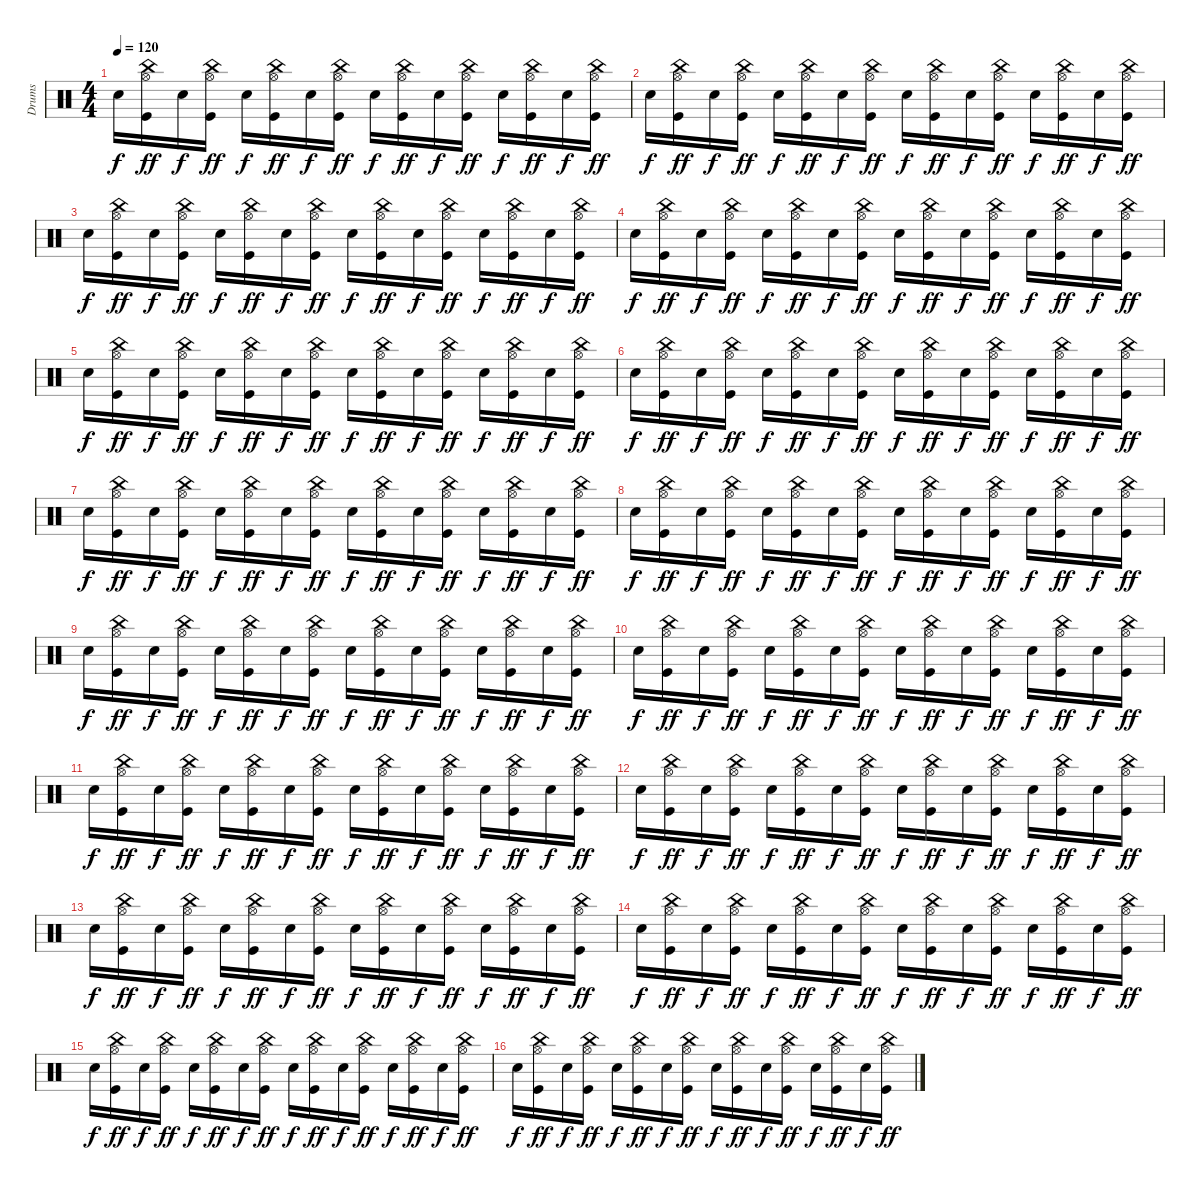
\track ("Drums" "Drums") {instrument percussion}
\staff {score}
\articulation defaults
\ts (4 4)
\tempo 120
\clef neutral
\ks c "Electric Snare (hit)".16{dy f}
("China (hit)" "Hi-Hat (open)" "Kick (hit)").16{dy ff} "Electric Snare (hit)".16{dy f} ("China (hit)" "Hi-Hat (open)" "Kick (hit)").16{dy ff} "Electric Snare (hit)".16{dy f} ("China (hit)" "Hi-Hat (open)" "Kick (hit)").16{dy ff} "Electric Snare (hit)".16{dy f} ("China (hit)" "Hi-Hat (open)" "Kick (hit)").16{dy ff} "Electric Snare (hit)".16{dy f} ("China (hit)" "Hi-Hat (open)" "Kick (hit)").16{dy ff} "Electric Snare (hit)".16{dy f} ("China (hit)" "Hi-Hat (open)" "Kick (hit)").16{dy ff} "Electric Snare (hit)".16{dy f} ("China (hit)" "Hi-Hat (open)" "Kick (hit)").16{dy ff} "Electric Snare (hit)".16{dy f} ("China (hit)" "Hi-Hat (open)" "Kick (hit)").16{dy ff} |
"Electric Snare (hit)".16{dy f} ("China (hit)" "Hi-Hat (open)" "Kick (hit)").16{dy ff} "Electric Snare (hit)".16{dy f} ("China (hit)" "Hi-Hat (open)" "Kick (hit)").16{dy ff} "Electric Snare (hit)".16{dy f} ("China (hit)" "Hi-Hat (open)" "Kick (hit)").16{dy ff} "Electric Snare (hit)".16{dy f} ("China (hit)" "Hi-Hat (open)" "Kick (hit)").16{dy ff} "Electric Snare (hit)".16{dy f} ("China (hit)" "Hi-Hat (open)" "Kick (hit)").16{dy ff} "Electric Snare (hit)".16{dy f} ("China (hit)" "Hi-Hat (open)" "Kick (hit)").16{dy ff} "Electric Snare (hit)".16{dy f} ("China (hit)" "Hi-Hat (open)" "Kick (hit)").16{dy ff} "Electric Snare (hit)".16{dy f} ("China (hit)" "Hi-Hat (open)" "Kick (hit)").16{dy ff} |
"Electric Snare (hit)".16{dy f} ("China (hit)" "Hi-Hat (open)" "Kick (hit)").16{dy ff} "Electric Snare (hit)".16{dy f} ("China (hit)" "Hi-Hat (open)" "Kick (hit)").16{dy ff} "Electric Snare (hit)".16{dy f} ("China (hit)" "Hi-Hat (open)" "Kick (hit)").16{dy ff} "Electric Snare (hit)".16{dy f} ("China (hit)" "Hi-Hat (open)" "Kick (hit)").16{dy ff} "Electric Snare (hit)".16{dy f} ("China (hit)" "Hi-Hat (open)" "Kick (hit)").16{dy ff} "Electric Snare (hit)".16{dy f} ("China (hit)" "Hi-Hat (open)" "Kick (hit)").16{dy ff} "Electric Snare (hit)".16{dy f} ("China (hit)" "Hi-Hat (open)" "Kick (hit)").16{dy ff} "Electric Snare (hit)".16{dy f} ("China (hit)" "Hi-Hat (open)" "Kick (hit)").16{dy ff} |
"Electric Snare (hit)".16{dy f} ("China (hit)" "Hi-Hat (open)" "Kick (hit)").16{dy ff} "Electric Snare (hit)".16{dy f} ("China (hit)" "Hi-Hat (open)" "Kick (hit)").16{dy ff} "Electric Snare (hit)".16{dy f} ("China (hit)" "Hi-Hat (open)" "Kick (hit)").16{dy ff} "Electric Snare (hit)".16{dy f} ("China (hit)" "Hi-Hat (open)" "Kick (hit)").16{dy ff} "Electric Snare (hit)".16{dy f} ("China (hit)" "Hi-Hat (open)" "Kick (hit)").16{dy ff} "Electric Snare (hit)".16{dy f} ("China (hit)" "Hi-Hat (open)" "Kick (hit)").16{dy ff} "Electric Snare (hit)".16{dy f} ("China (hit)" "Hi-Hat (open)" "Kick (hit)").16{dy ff} "Electric Snare (hit)".16{dy f} ("China (hit)" "Hi-Hat (open)" "Kick (hit)").16{dy ff} |
"Electric Snare (hit)".16{dy f} ("China (hit)" "Hi-Hat (open)" "Kick (hit)").16{dy ff} "Electric Snare (hit)".16{dy f} ("China (hit)" "Hi-Hat (open)" "Kick (hit)").16{dy ff} "Electric Snare (hit)".16{dy f} ("China (hit)" "Hi-Hat (open)" "Kick (hit)").16{dy ff} "Electric Snare (hit)".16{dy f} ("China (hit)" "Hi-Hat (open)" "Kick (hit)").16{dy ff} "Electric Snare (hit)".16{dy f} ("China (hit)" "Hi-Hat (open)" "Kick (hit)").16{dy ff} "Electric Snare (hit)".16{dy f} ("China (hit)" "Hi-Hat (open)" "Kick (hit)").16{dy ff} "Electric Snare (hit)".16{dy f} ("China (hit)" "Hi-Hat (open)" "Kick (hit)").16{dy ff} "Electric Snare (hit)".16{dy f} ("China (hit)" "Hi-Hat (open)" "Kick (hit)").16{dy ff} |
"Electric Snare (hit)".16{dy f} ("China (hit)" "Hi-Hat (open)" "Kick (hit)").16{dy ff} "Electric Snare (hit)".16{dy f} ("China (hit)" "Hi-Hat (open)" "Kick (hit)").16{dy ff} "Electric Snare (hit)".16{dy f} ("China (hit)" "Hi-Hat (open)" "Kick (hit)").16{dy ff} "Electric Snare (hit)".16{dy f} ("China (hit)" "Hi-Hat (open)" "Kick (hit)").16{dy ff} "Electric Snare (hit)".16{dy f} ("China (hit)" "Hi-Hat (open)" "Kick (hit)").16{dy ff} "Electric Snare (hit)".16{dy f} ("China (hit)" "Hi-Hat (open)" "Kick (hit)").16{dy ff} "Electric Snare (hit)".16{dy f} ("China (hit)" "Hi-Hat (open)" "Kick (hit)").16{dy ff} "Electric Snare (hit)".16{dy f} ("China (hit)" "Hi-Hat (open)" "Kick (hit)").16{dy ff} |
"Electric Snare (hit)".16{dy f} ("China (hit)" "Hi-Hat (open)" "Kick (hit)").16{dy ff} "Electric Snare (hit)".16{dy f} ("China (hit)" "Hi-Hat (open)" "Kick (hit)").16{dy ff} "Electric Snare (hit)".16{dy f} ("China (hit)" "Hi-Hat (open)" "Kick (hit)").16{dy ff} "Electric Snare (hit)".16{dy f} ("China (hit)" "Hi-Hat (open)" "Kick (hit)").16{dy ff} "Electric Snare (hit)".16{dy f} ("China (hit)" "Hi-Hat (open)" "Kick (hit)").16{dy ff} "Electric Snare (hit)".16{dy f} ("China (hit)" "Hi-Hat (open)" "Kick (hit)").16{dy ff} "Electric Snare (hit)".16{dy f} ("China (hit)" "Hi-Hat (open)" "Kick (hit)").16{dy ff} "Electric Snare (hit)".16{dy f} ("China (hit)" "Hi-Hat (open)" "Kick (hit)").16{dy ff} |
"Electric Snare (hit)".16{dy f} ("China (hit)" "Hi-Hat (open)" "Kick (hit)").16{dy ff} "Electric Snare (hit)".16{dy f} ("China (hit)" "Hi-Hat (open)" "Kick (hit)").16{dy ff} "Electric Snare (hit)".16{dy f} ("China (hit)" "Hi-Hat (open)" "Kick (hit)").16{dy ff} "Electric Snare (hit)".16{dy f} ("China (hit)" "Hi-Hat (open)" "Kick (hit)").16{dy ff} "Electric Snare (hit)".16{dy f} ("China (hit)" "Hi-Hat (open)" "Kick (hit)").16{dy ff} "Electric Snare (hit)".16{dy f} ("China (hit)" "Hi-Hat (open)" "Kick (hit)").16{dy ff} "Electric Snare (hit)".16{dy f} ("China (hit)" "Hi-Hat (open)" "Kick (hit)").16{dy ff} "Electric Snare (hit)".16{dy f} ("China (hit)" "Hi-Hat (open)" "Kick (hit)").16{dy ff} |
"Electric Snare (hit)".16{dy f} ("China (hit)" "Hi-Hat (open)" "Kick (hit)").16{dy ff} "Electric Snare (hit)".16{dy f} ("China (hit)" "Hi-Hat (open)" "Kick (hit)").16{dy ff} "Electric Snare (hit)".16{dy f} ("China (hit)" "Hi-Hat (open)" "Kick (hit)").16{dy ff} "Electric Snare (hit)".16{dy f} ("China (hit)" "Hi-Hat (open)" "Kick (hit)").16{dy ff} "Electric Snare (hit)".16{dy f} ("China (hit)" "Hi-Hat (open)" "Kick (hit)").16{dy ff} "Electric Snare (hit)".16{dy f} ("China (hit)" "Hi-Hat (open)" "Kick (hit)").16{dy ff} "Electric Snare (hit)".16{dy f} ("China (hit)" "Hi-Hat (open)" "Kick (hit)").16{dy ff} "Electric Snare (hit)".16{dy f} ("China (hit)" "Hi-Hat (open)" "Kick (hit)").16{dy ff} |
"Electric Snare (hit)".16{dy f} ("China (hit)" "Hi-Hat (open)" "Kick (hit)").16{dy ff} "Electric Snare (hit)".16{dy f} ("China (hit)" "Hi-Hat (open)" "Kick (hit)").16{dy ff} "Electric Snare (hit)".16{dy f} ("China (hit)" "Hi-Hat (open)" "Kick (hit)").16{dy ff} "Electric Snare (hit)".16{dy f} ("China (hit)" "Hi-Hat (open)" "Kick (hit)").16{dy ff} "Electric Snare (hit)".16{dy f} ("China (hit)" "Hi-Hat (open)" "Kick (hit)").16{dy ff} "Electric Snare (hit)".16{dy f} ("China (hit)" "Hi-Hat (open)" "Kick (hit)").16{dy ff} "Electric Snare (hit)".16{dy f} ("China (hit)" "Hi-Hat (open)" "Kick (hit)").16{dy ff} "Electric Snare (hit)".16{dy f} ("China (hit)" "Hi-Hat (open)" "Kick (hit)").16{dy ff} |
"Electric Snare (hit)".16{dy f} ("China (hit)" "Hi-Hat (open)" "Kick (hit)").16{dy ff} "Electric Snare (hit)".16{dy f} ("China (hit)" "Hi-Hat (open)" "Kick (hit)").16{dy ff} "Electric Snare (hit)".16{dy f} ("China (hit)" "Hi-Hat (open)" "Kick (hit)").16{dy ff} "Electric Snare (hit)".16{dy f} ("China (hit)" "Hi-Hat (open)" "Kick (hit)").16{dy ff} "Electric Snare (hit)".16{dy f} ("China (hit)" "Hi-Hat (open)" "Kick (hit)").16{dy ff} "Electric Snare (hit)".16{dy f} ("China (hit)" "Hi-Hat (open)" "Kick (hit)").16{dy ff} "Electric Snare (hit)".16{dy f} ("China (hit)" "Hi-Hat (open)" "Kick (hit)").16{dy ff} "Electric Snare (hit)".16{dy f} ("China (hit)" "Hi-Hat (open)" "Kick (hit)").16{dy ff} |
"Electric Snare (hit)".16{dy f} ("China (hit)" "Hi-Hat (open)" "Kick (hit)").16{dy ff} "Electric Snare (hit)".16{dy f} ("China (hit)" "Hi-Hat (open)" "Kick (hit)").16{dy ff} "Electric Snare (hit)".16{dy f} ("China (hit)" "Hi-Hat (open)" "Kick (hit)").16{dy ff} "Electric Snare (hit)".16{dy f} ("China (hit)" "Hi-Hat (open)" "Kick (hit)").16{dy ff} "Electric Snare (hit)".16{dy f} ("China (hit)" "Hi-Hat (open)" "Kick (hit)").16{dy ff} "Electric Snare (hit)".16{dy f} ("China (hit)" "Hi-Hat (open)" "Kick (hit)").16{dy ff} "Electric Snare (hit)".16{dy f} ("China (hit)" "Hi-Hat (open)" "Kick (hit)").16{dy ff} "Electric Snare (hit)".16{dy f} ("China (hit)" "Hi-Hat (open)" "Kick (hit)").16{dy ff} |
"Electric Snare (hit)".16{dy f} ("China (hit)" "Hi-Hat (open)" "Kick (hit)").16{dy ff} "Electric Snare (hit)".16{dy f} ("China (hit)" "Hi-Hat (open)" "Kick (hit)").16{dy ff} "Electric Snare (hit)".16{dy f} ("China (hit)" "Hi-Hat (open)" "Kick (hit)").16{dy ff} "Electric Snare (hit)".16{dy f} ("China (hit)" "Hi-Hat (open)" "Kick (hit)").16{dy ff} "Electric Snare (hit)".16{dy f} ("China (hit)" "Hi-Hat (open)" "Kick (hit)").16{dy ff} "Electric Snare (hit)".16{dy f} ("China (hit)" "Hi-Hat (open)" "Kick (hit)").16{dy ff} "Electric Snare (hit)".16{dy f} ("China (hit)" "Hi-Hat (open)" "Kick (hit)").16{dy ff} "Electric Snare (hit)".16{dy f} ("China (hit)" "Hi-Hat (open)" "Kick (hit)").16{dy ff} |
"Electric Snare (hit)".16{dy f} ("China (hit)" "Hi-Hat (open)" "Kick (hit)").16{dy ff} "Electric Snare (hit)".16{dy f} ("China (hit)" "Hi-Hat (open)" "Kick (hit)").16{dy ff} "Electric Snare (hit)".16{dy f} ("China (hit)" "Hi-Hat (open)" "Kick (hit)").16{dy ff} "Electric Snare (hit)".16{dy f} ("China (hit)" "Hi-Hat (open)" "Kick (hit)").16{dy ff} "Electric Snare (hit)".16{dy f} ("China (hit)" "Hi-Hat (open)" "Kick (hit)").16{dy ff} "Electric Snare (hit)".16{dy f} ("China (hit)" "Hi-Hat (open)" "Kick (hit)").16{dy ff} "Electric Snare (hit)".16{dy f} ("China (hit)" "Hi-Hat (open)" "Kick (hit)").16{dy ff} "Electric Snare (hit)".16{dy f} ("China (hit)" "Hi-Hat (open)" "Kick (hit)").16{dy ff} |
"Electric Snare (hit)".16{dy f} ("China (hit)" "Hi-Hat (open)" "Kick (hit)").16{dy ff} "Electric Snare (hit)".16{dy f} ("China (hit)" "Hi-Hat (open)" "Kick (hit)").16{dy ff} "Electric Snare (hit)".16{dy f} ("China (hit)" "Hi-Hat (open)" "Kick (hit)").16{dy ff} "Electric Snare (hit)".16{dy f} ("China (hit)" "Hi-Hat (open)" "Kick (hit)").16{dy ff} "Electric Snare (hit)".16{dy f} ("China (hit)" "Hi-Hat (open)" "Kick (hit)").16{dy ff} "Electric Snare (hit)".16{dy f} ("China (hit)" "Hi-Hat (open)" "Kick (hit)").16{dy ff} "Electric Snare (hit)".16{dy f} ("China (hit)" "Hi-Hat (open)" "Kick (hit)").16{dy ff} "Electric Snare (hit)".16{dy f} ("China (hit)" "Hi-Hat (open)" "Kick (hit)").16{dy ff} |
"Electric Snare (hit)".16{dy f} ("China (hit)" "Hi-Hat (open)" "Kick (hit)").16{dy ff} "Electric Snare (hit)".16{dy f} ("China (hit)" "Hi-Hat (open)" "Kick (hit)").16{dy ff} "Electric Snare (hit)".16{dy f} ("China (hit)" "Hi-Hat (open)" "Kick (hit)").16{dy ff} "Electric Snare (hit)".16{dy f} ("China (hit)" "Hi-Hat (open)" "Kick (hit)").16{dy ff} "Electric Snare (hit)".16{dy f} ("China (hit)" "Hi-Hat (open)" "Kick (hit)").16{dy ff} "Electric Snare (hit)".16{dy f} ("China (hit)" "Hi-Hat (open)" "Kick (hit)").16{dy ff} "Electric Snare (hit)".16{dy f} ("China (hit)" "Hi-Hat (open)" "Kick (hit)").16{dy ff} "Electric Snare (hit)".16{dy f} ("China (hit)" "Hi-Hat (open)" "Kick (hit)").16{dy ff}
